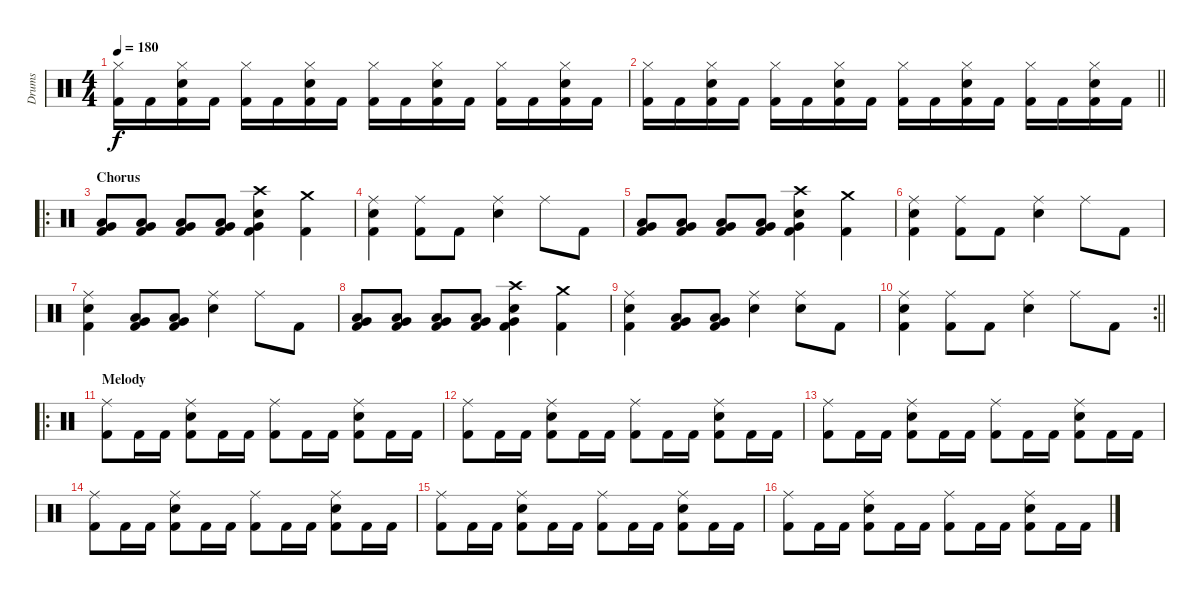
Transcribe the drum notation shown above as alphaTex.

\track ("Drums" "Drums") {instrument percussion}
\staff {score}
\articulation defaults
\ts (4 4)
\tempo 180
\clef neutral
\ks c
("Hi-Hat (closed)" "Kick (hit) 2").16{dy f} "Kick (hit) 2".16 ("Hi-Hat (closed)" "Electric Snare (hit)" "Kick (hit) 2").16 "Kick (hit) 2".16 ("Hi-Hat (closed)" "Kick (hit) 2").16 "Kick (hit) 2".16 ("Hi-Hat (closed)" "Electric Snare (hit)" "Kick (hit) 2").16 "Kick (hit) 2".16 ("Hi-Hat (closed)" "Kick (hit) 2").16 "Kick (hit) 2".16 ("Hi-Hat (closed)" "Electric Snare (hit)" "Kick (hit) 2").16 "Kick (hit) 2".16 ("Hi-Hat (closed)" "Kick (hit) 2").16 "Kick (hit) 2".16 ("Hi-Hat (closed)" "Electric Snare (hit)" "Kick (hit) 2").16 "Kick (hit) 2".16 |
\barLineRight lightlight
("Hi-Hat (closed)" "Kick (hit) 2").16 "Kick (hit) 2".16 ("Hi-Hat (closed)" "Electric Snare (hit)" "Kick (hit) 2").16 "Kick (hit) 2".16 ("Hi-Hat (closed)" "Kick (hit) 2").16 "Kick (hit) 2".16 ("Hi-Hat (closed)" "Electric Snare (hit)" "Kick (hit) 2").16 "Kick (hit) 2".16 ("Hi-Hat (closed)" "Kick (hit) 2").16 "Kick (hit) 2".16 ("Hi-Hat (closed)" "Electric Snare (hit)" "Kick (hit) 2").16 "Kick (hit) 2".16 ("Hi-Hat (closed)" "Kick (hit) 2").16 "Kick (hit) 2".16 ("Hi-Hat (closed)" "Electric Snare (hit)" "Kick (hit) 2").16 "Kick (hit) 2".16 |
\ro
\section ("" "Chorus")
("Low Floor Tom (hit)" "Very Low Tom (hit)" "Kick (hit) 2").8 ("Low Floor Tom (hit)" "Very Low Tom (hit)" "Kick (hit) 2").8 ("Low Floor Tom (hit)" "Very Low Tom (hit)" "Kick (hit) 2").8 ("Low Floor Tom (hit)" "Very Low Tom (hit)" "Kick (hit) 2").8 ("Crash high (hit)" "Electric Snare (hit)" "Very Low Tom (hit)" "Kick (hit) 2").4 ("Crash medium (hit)" "Kick (hit) 2").4 |
("Ride (middle)" "Electric Snare (hit)" "Kick (hit) 2").4 ("Ride (middle)" "Kick (hit) 2").8 "Kick (hit) 2".8 ("Ride (middle)" "Electric Snare (hit)").4 "Ride (middle)".8 "Kick (hit) 2".8 |
("Low Floor Tom (hit)" "Very Low Tom (hit)" "Kick (hit) 2").8 ("Low Floor Tom (hit)" "Very Low Tom (hit)" "Kick (hit) 2").8 ("Low Floor Tom (hit)" "Very Low Tom (hit)" "Kick (hit) 2").8 ("Low Floor Tom (hit)" "Very Low Tom (hit)" "Kick (hit) 2").8 ("Crash high (hit)" "Electric Snare (hit)" "Very Low Tom (hit)" "Kick (hit) 2").4 ("Crash medium (hit)" "Kick (hit) 2").4 |
("Ride (middle)" "Electric Snare (hit)" "Kick (hit) 2").4 ("Ride (middle)" "Kick (hit) 2").8 "Kick (hit) 2".8 ("Ride (middle)" "Electric Snare (hit)").4 "Ride (middle)".8 "Kick (hit) 2".8 |
("Ride (middle)" "Electric Snare (hit)" "Kick (hit) 2").4 ("Very Low Tom (hit)" "Low Floor Tom (hit)" "Kick (hit) 2").8 ("Very Low Tom (hit)" "Low Floor Tom (hit)" "Kick (hit) 2").8 ("Ride (middle)" "Electric Snare (hit)").4 "Ride (middle)".8 "Kick (hit) 2".8 |
("Low Floor Tom (hit)" "Very Low Tom (hit)" "Kick (hit) 2").8 ("Low Floor Tom (hit)" "Very Low Tom (hit)" "Kick (hit) 2").8 ("Low Floor Tom (hit)" "Very Low Tom (hit)" "Kick (hit) 2").8 ("Low Floor Tom (hit)" "Very Low Tom (hit)" "Kick (hit) 2").8 ("Crash high (hit)" "Electric Snare (hit)" "Very Low Tom (hit)" "Kick (hit) 2").4 ("Crash medium (hit)" "Kick (hit) 2").4 |
("Ride (middle)" "Electric Snare (hit)" "Kick (hit) 2").4 ("Very Low Tom (hit)" "Low Floor Tom (hit)" "Kick (hit) 2").8 ("Very Low Tom (hit)" "Low Floor Tom (hit)" "Kick (hit) 2").8 ("Ride (middle)" "Electric Snare (hit)").4 ("Ride (middle)" "Electric Snare (hit)").8 "Kick (hit) 2".8 |
\rc 2
\barLineRight lightlight
("Ride (middle)" "Electric Snare (hit)" "Kick (hit) 2").4 ("Ride (middle)" "Kick (hit) 2").8 "Kick (hit) 2".8 ("Ride (middle)" "Electric Snare (hit)").4 "Ride (middle)".8 "Kick (hit) 2".8 |
\ro
\section ("" "Melody")
("Ride (middle)" "Kick (hit) 2").8 "Kick (hit) 2".16 "Kick (hit) 2".16 ("Ride (middle)" "Electric Snare (hit)" "Kick (hit) 2").8 "Kick (hit) 2".16 "Kick (hit) 2".16 ("Ride (middle)" "Kick (hit) 2").8 "Kick (hit) 2".16 "Kick (hit) 2".16 ("Ride (middle)" "Electric Snare (hit)" "Kick (hit) 2").8 "Kick (hit) 2".16 "Kick (hit) 2".16 |
("Ride (middle)" "Kick (hit) 2").8 "Kick (hit) 2".16 "Kick (hit) 2".16 ("Ride (middle)" "Electric Snare (hit)" "Kick (hit) 2").8 "Kick (hit) 2".16 "Kick (hit) 2".16 ("Ride (middle)" "Kick (hit) 2").8 "Kick (hit) 2".16 "Kick (hit) 2".16 ("Ride (middle)" "Electric Snare (hit)" "Kick (hit) 2").8 "Kick (hit) 2".16 "Kick (hit) 2".16 |
("Ride (middle)" "Kick (hit) 2").8 "Kick (hit) 2".16 "Kick (hit) 2".16 ("Ride (middle)" "Electric Snare (hit)" "Kick (hit) 2").8 "Kick (hit) 2".16 "Kick (hit) 2".16 ("Ride (middle)" "Kick (hit) 2").8 "Kick (hit) 2".16 "Kick (hit) 2".16 ("Ride (middle)" "Electric Snare (hit)" "Kick (hit) 2").8 "Kick (hit) 2".16 "Kick (hit) 2".16 |
("Ride (middle)" "Kick (hit) 2").8 "Kick (hit) 2".16 "Kick (hit) 2".16 ("Ride (middle)" "Electric Snare (hit)" "Kick (hit) 2").8 "Kick (hit) 2".16 "Kick (hit) 2".16 ("Ride (middle)" "Kick (hit) 2").8 "Kick (hit) 2".16 "Kick (hit) 2".16 ("Ride (middle)" "Electric Snare (hit)" "Kick (hit) 2").8 "Kick (hit) 2".16 "Kick (hit) 2".16 |
("Ride (middle)" "Kick (hit) 2").8 "Kick (hit) 2".16 "Kick (hit) 2".16 ("Ride (middle)" "Electric Snare (hit)" "Kick (hit) 2").8 "Kick (hit) 2".16 "Kick (hit) 2".16 ("Ride (middle)" "Kick (hit) 2").8 "Kick (hit) 2".16 "Kick (hit) 2".16 ("Ride (middle)" "Electric Snare (hit)" "Kick (hit) 2").8 "Kick (hit) 2".16 "Kick (hit) 2".16 |
("Ride (middle)" "Kick (hit) 2").8 "Kick (hit) 2".16 "Kick (hit) 2".16 ("Ride (middle)" "Electric Snare (hit)" "Kick (hit) 2").8 "Kick (hit) 2".16 "Kick (hit) 2".16 ("Ride (middle)" "Kick (hit) 2").8 "Kick (hit) 2".16 "Kick (hit) 2".16 ("Ride (middle)" "Electric Snare (hit)" "Kick (hit) 2").8 "Kick (hit) 2".16 "Kick (hit) 2".16
